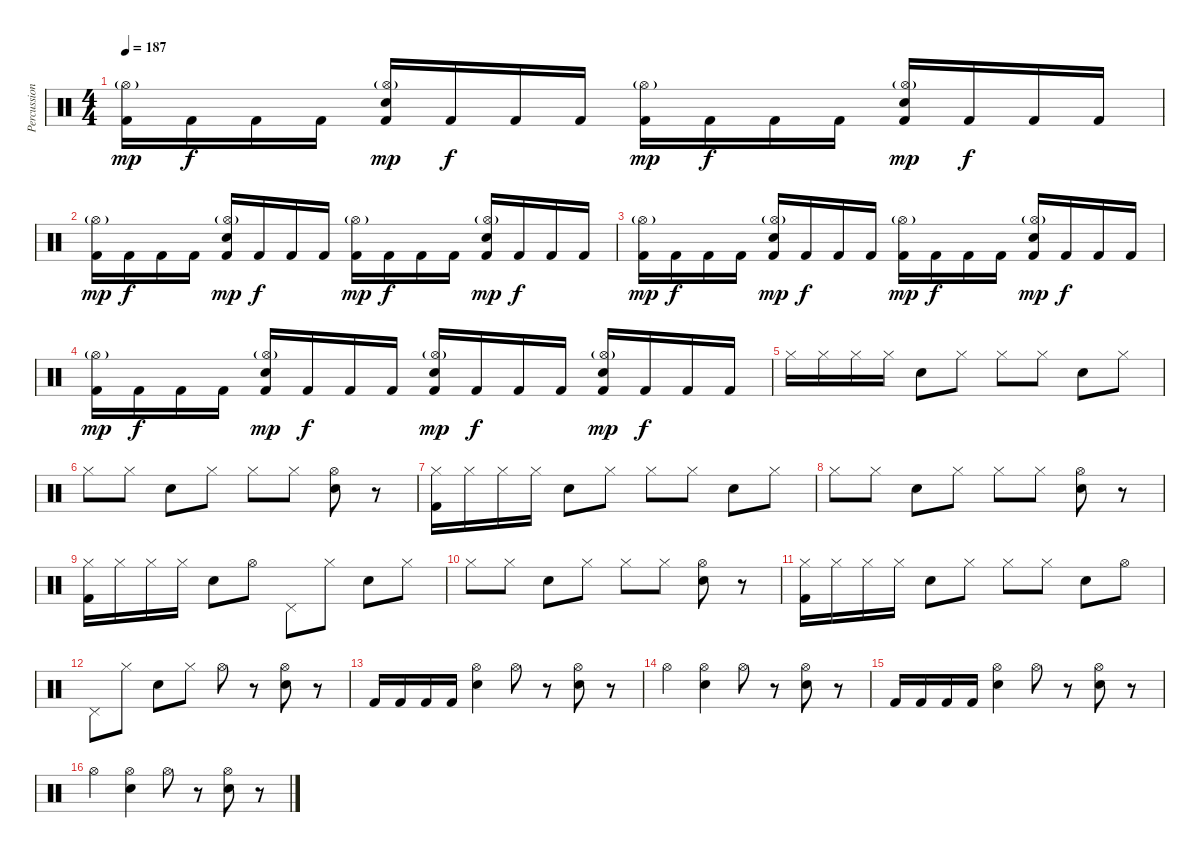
\track ("Percussion" "Percussion") {instrument percussion}
\staff {score}
\articulation defaults
\ts (4 4)
\tempo 187
\clef neutral
\ks c
("Kick (hit) 2" "Hi-Hat (open)"{g}).16{dy mp} "Kick (hit) 2".16{dy f} "Kick (hit) 2".16 "Kick (hit) 2".16 ("Kick (hit) 2" "Snare (hit) 2" "Hi-Hat (open)"{g}).16{dy mp} "Kick (hit) 2".16{dy f} "Kick (hit) 2".16 "Kick (hit) 2".16 ("Kick (hit) 2" "Hi-Hat (open)"{g}).16{dy mp} "Kick (hit) 2".16{dy f} "Kick (hit) 2".16 "Kick (hit) 2".16 ("Kick (hit) 2" "Snare (hit) 2" "Hi-Hat (open)"{g}).16{dy mp} "Kick (hit) 2".16{dy f} "Kick (hit) 2".16 "Kick (hit) 2".16 |
("Kick (hit) 2" "Hi-Hat (open)"{g}).16{dy mp} "Kick (hit) 2".16{dy f} "Kick (hit) 2".16 "Kick (hit) 2".16 ("Kick (hit) 2" "Snare (hit) 2" "Hi-Hat (open)"{g}).16{dy mp} "Kick (hit) 2".16{dy f} "Kick (hit) 2".16 "Kick (hit) 2".16 ("Kick (hit) 2" "Hi-Hat (open)"{g}).16{dy mp} "Kick (hit) 2".16{dy f} "Kick (hit) 2".16 "Kick (hit) 2".16 ("Kick (hit) 2" "Snare (hit) 2" "Hi-Hat (open)"{g}).16{dy mp} "Kick (hit) 2".16{dy f} "Kick (hit) 2".16 "Kick (hit) 2".16 |
("Kick (hit) 2" "Hi-Hat (open)"{g}).16{dy mp} "Kick (hit) 2".16{dy f} "Kick (hit) 2".16 "Kick (hit) 2".16 ("Kick (hit) 2" "Snare (hit) 2" "Hi-Hat (open)"{g}).16{dy mp} "Kick (hit) 2".16{dy f} "Kick (hit) 2".16 "Kick (hit) 2".16 ("Kick (hit) 2" "Hi-Hat (open)"{g}).16{dy mp} "Kick (hit) 2".16{dy f} "Kick (hit) 2".16 "Kick (hit) 2".16 ("Kick (hit) 2" "Snare (hit) 2" "Hi-Hat (open)"{g}).16{dy mp} "Kick (hit) 2".16{dy f} "Kick (hit) 2".16 "Kick (hit) 2".16 |
("Kick (hit) 2" "Hi-Hat (open)"{g}).16{dy mp} "Kick (hit) 2".16{dy f} "Kick (hit) 2".16 "Kick (hit) 2".16 ("Kick (hit) 2" "Snare (hit) 2" "Hi-Hat (open)"{g}).16{dy mp} "Kick (hit) 2".16{dy f} "Kick (hit) 2".16 "Kick (hit) 2".16 ("Kick (hit) 2" "Hi-Hat (open)"{g} "Snare (hit) 2").16{dy mp} "Kick (hit) 2".16{dy f} "Kick (hit) 2".16 "Kick (hit) 2".16 ("Kick (hit) 2" "Snare (hit) 2" "Hi-Hat (open)"{g}).16{dy mp} "Kick (hit) 2".16{dy f} "Kick (hit) 2".16 "Kick (hit) 2".16 |
"Hi-Hat (closed)".16{volume 10} "Hi-Hat (closed)".16 "Hi-Hat (closed)".16 "Hi-Hat (closed)".16 "Snare (hit) 2".8 "Hi-Hat (closed)".8 "Hi-Hat (closed)".8 "Hi-Hat (closed)".8 "Snare (hit) 2".8 "Hi-Hat (closed)".8 |
"Hi-Hat (closed)".8 "Hi-Hat (closed)".8 "Snare (hit) 2".8 "Hi-Hat (closed)".8 "Hi-Hat (closed)".8 "Hi-Hat (closed)".8 ("Snare (hit) 2" "Hi-Hat (open)").8 r.8 |
("Hi-Hat (closed)" "Kick (hit) 2").16 "Hi-Hat (closed)".16 "Hi-Hat (closed)".16 "Hi-Hat (closed)".16 "Snare (hit) 2".8 "Hi-Hat (closed)".8 "Hi-Hat (closed)".8 "Hi-Hat (closed)".8 "Snare (hit) 2".8 "Hi-Hat (closed)".8 |
"Hi-Hat (closed)".8 "Hi-Hat (closed)".8 "Snare (hit) 2".8 "Hi-Hat (closed)".8 "Hi-Hat (closed)".8 "Hi-Hat (closed)".8 ("Snare (hit) 2" "Hi-Hat (open)").8 r.8 |
("Hi-Hat (closed)" "Kick (hit) 2").16 "Hi-Hat (closed)".16 "Hi-Hat (closed)".16 "Hi-Hat (closed)".16 "Snare (hit) 2".8 "Hi-Hat (open)".8 "Pedal Hi-Hat (hit)".8 "Hi-Hat (closed)".8 "Snare (hit) 2".8 "Hi-Hat (closed)".8 |
"Hi-Hat (closed)".8 "Hi-Hat (closed)".8 "Snare (hit) 2".8 "Hi-Hat (closed)".8 "Hi-Hat (closed)".8 "Hi-Hat (closed)".8 ("Snare (hit) 2" "Hi-Hat (open)").8 r.8 |
("Hi-Hat (closed)" "Kick (hit) 2").16 "Hi-Hat (closed)".16 "Hi-Hat (closed)".16 "Hi-Hat (closed)".16 "Snare (hit) 2".8 "Hi-Hat (closed)".8 "Hi-Hat (closed)".8 "Hi-Hat (closed)".8 "Snare (hit) 2".8 "Hi-Hat (open)".8 |
"Pedal Hi-Hat (hit)".8 "Hi-Hat (closed)".8 "Snare (hit) 2".8 "Hi-Hat (closed)".8 "Hi-Hat (open)".8 r.8 ("Snare (hit) 2" "Hi-Hat (open)").8 r.8 |
"Kick (hit) 2".16 "Kick (hit) 2".16 "Kick (hit) 2".16 "Kick (hit) 2".16 ("Snare (hit) 2" "Hi-Hat (open)").4 "Hi-Hat (open)".8 r.8 ("Snare (hit) 2" "Hi-Hat (open)").8 r.8 |
"Hi-Hat (open)".4 ("Snare (hit) 2" "Hi-Hat (open)").4 "Hi-Hat (open)".8 r.8 ("Snare (hit) 2" "Hi-Hat (open)").8 r.8 |
"Kick (hit) 2".16 "Kick (hit) 2".16 "Kick (hit) 2".16 "Kick (hit) 2".16 ("Snare (hit) 2" "Hi-Hat (open)").4 "Hi-Hat (open)".8 r.8 ("Snare (hit) 2" "Hi-Hat (open)").8 r.8 |
"Hi-Hat (open)".4 ("Snare (hit) 2" "Hi-Hat (open)").4 "Hi-Hat (open)".8 r.8 ("Snare (hit) 2" "Hi-Hat (open)").8 r.8
